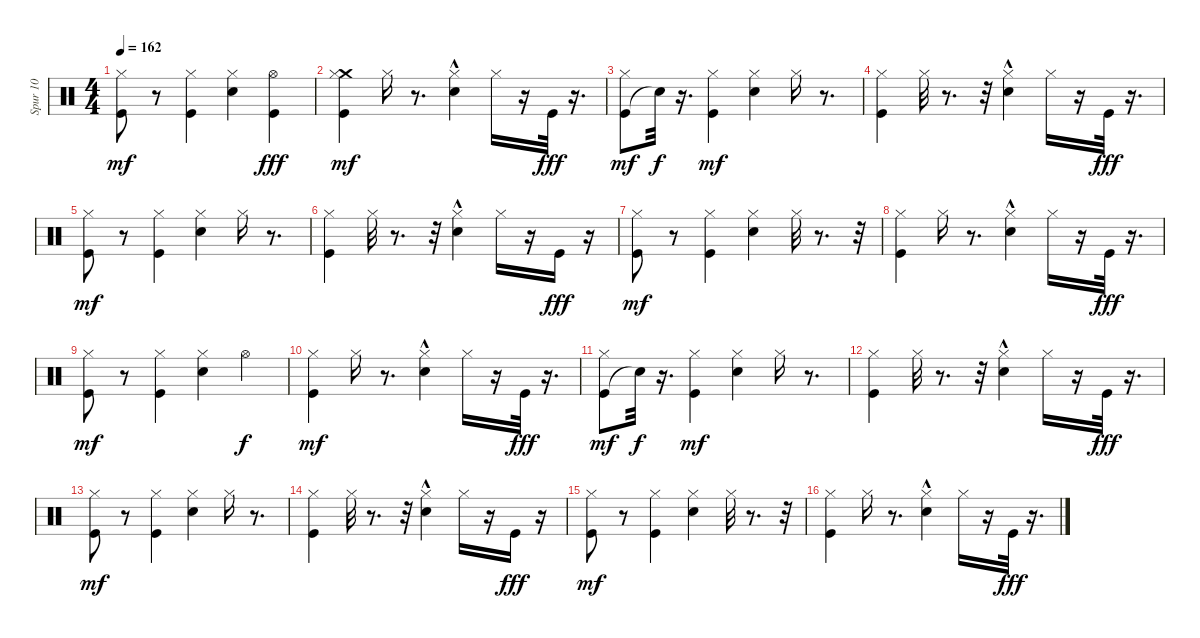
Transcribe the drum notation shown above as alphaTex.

\track ("Spur 10" "Spur 10") {instrument percussion}
\staff {score}
\articulation defaults
\ts (4 4)
\tempo 162
\clef neutral
\ks c
("Kick (hit)" "Hi-Hat (closed)").8{dy mf} r.8 ("Kick (hit)" "Hi-Hat (closed)").4 ("Snare (hit) 2" "Hi-Hat (closed)").4 ("Kick (hit)" "Hi-Hat (open)").4{dy fff} |
("Kick (hit)" "Crash medium (hit)" "Hi-Hat (closed)").4{dy mf} "Hi-Hat (closed)".16 r.8{d} ("Snare (hit) 2"{hac} "Hi-Hat (closed)").4 "Hi-Hat (closed)".16 r.16 "Kick (hit)".32{dy fff} r.16{d} |
("Kick (hit)" "Hi-Hat (closed)").8{dy mf} "Snare (hit)"{t}.32{dy f} r.16{d} ("Kick (hit)" "Hi-Hat (closed)").4{dy mf} ("Snare (hit) 2" "Hi-Hat (closed)").4 "Hi-Hat (closed)".16 r.8{d} |
("Kick (hit)" "Hi-Hat (closed)").4 "Hi-Hat (closed)".32 r.8{d} r.32 ("Snare (hit) 2"{hac} "Hi-Hat (closed)").4 "Hi-Hat (closed)".16 r.16 "Kick (hit)".32{dy fff} r.16{d} |
("Kick (hit)" "Hi-Hat (closed)").8{dy mf} r.8 ("Kick (hit)" "Hi-Hat (closed)").4 ("Snare (hit) 2" "Hi-Hat (closed)").4 "Hi-Hat (closed)".16 r.8{d} |
("Kick (hit)" "Hi-Hat (closed)").4 "Hi-Hat (closed)".32 r.8{d} r.32 ("Snare (hit) 2"{hac} "Hi-Hat (closed)").4 "Hi-Hat (closed)".16 r.16 "Kick (hit)".16{dy fff} r.16 |
("Kick (hit)" "Hi-Hat (closed)").8{dy mf} r.8 ("Kick (hit)" "Hi-Hat (closed)").4 ("Snare (hit) 2" "Hi-Hat (closed)").4 "Hi-Hat (closed)".32 r.8{d} r.32 |
("Kick (hit)" "Hi-Hat (closed)").4 "Hi-Hat (closed)".16 r.8{d} ("Snare (hit) 2"{hac} "Hi-Hat (closed)").4 "Hi-Hat (closed)".16 r.16 "Kick (hit)".32{dy fff} r.16{d} |
("Kick (hit)" "Hi-Hat (closed)").8{dy mf} r.8 ("Kick (hit)" "Hi-Hat (closed)").4 ("Snare (hit) 2" "Hi-Hat (closed)").4 "Hi-Hat (open)".4{dy f} |
("Kick (hit)" "Hi-Hat (closed)").4{dy mf} "Hi-Hat (closed)".16 r.8{d} ("Snare (hit) 2"{hac} "Hi-Hat (closed)").4 "Hi-Hat (closed)".16 r.16 "Kick (hit)".32{dy fff} r.16{d} |
("Kick (hit)" "Hi-Hat (closed)").8{dy mf} "Snare (hit)"{t}.32{dy f} r.16{d} ("Kick (hit)" "Hi-Hat (closed)").4{dy mf} ("Snare (hit) 2" "Hi-Hat (closed)").4 "Hi-Hat (closed)".16 r.8{d} |
("Kick (hit)" "Hi-Hat (closed)").4 "Hi-Hat (closed)".32 r.8{d} r.32 ("Snare (hit) 2"{hac} "Hi-Hat (closed)").4 "Hi-Hat (closed)".16 r.16 "Kick (hit)".32{dy fff} r.16{d} |
("Kick (hit)" "Hi-Hat (closed)").8{dy mf} r.8 ("Kick (hit)" "Hi-Hat (closed)").4 ("Snare (hit) 2" "Hi-Hat (closed)").4 "Hi-Hat (closed)".16 r.8{d} |
("Kick (hit)" "Hi-Hat (closed)").4 "Hi-Hat (closed)".32 r.8{d} r.32 ("Snare (hit) 2"{hac} "Hi-Hat (closed)").4 "Hi-Hat (closed)".16 r.16 "Kick (hit)".16{dy fff} r.16 |
("Kick (hit)" "Hi-Hat (closed)").8{dy mf} r.8 ("Kick (hit)" "Hi-Hat (closed)").4 ("Snare (hit) 2" "Hi-Hat (closed)").4 "Hi-Hat (closed)".32 r.8{d} r.32 |
("Kick (hit)" "Hi-Hat (closed)").4 "Hi-Hat (closed)".16 r.8{d} ("Snare (hit) 2"{hac} "Hi-Hat (closed)").4 "Hi-Hat (closed)".16 r.16 "Kick (hit)".32{dy fff} r.16{d}
